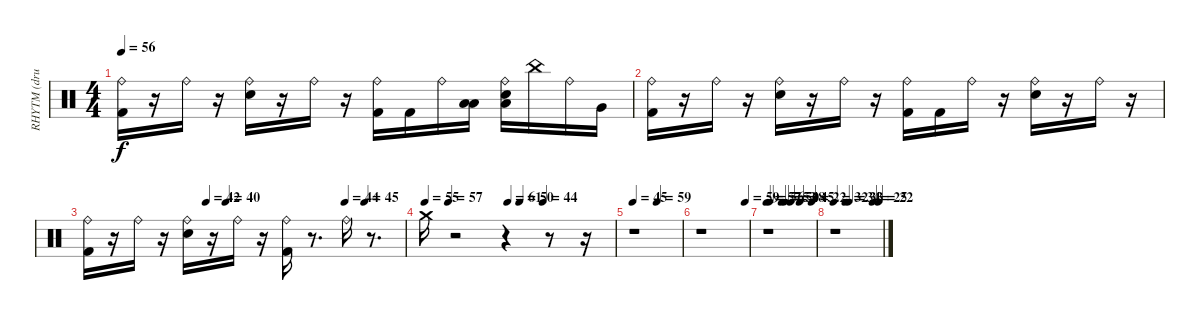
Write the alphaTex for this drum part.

\track ("RHYTM (drums)" "RHYTM (dru") {instrument percussion}
\staff {score}
\articulation defaults
\ts (4 4)
\tempo 56
\clef neutral
\ks c
("Ride (bell)" "Kick (hit) 2").16{dy f} r.16 "Ride (bell)".16 r.16 ("Ride (bell)" "Electric Snare (hit)").16 r.16 "Ride (bell)".16 r.16 ("Ride (bell)" "Kick (hit) 2").16 "Kick (hit) 2".16 "Ride (bell)".16 ("Low Floor Tom (hit)" "Low Tom (hit)").16 ("Low Floor Tom (hit)" "Ride (bell)" "Electric Snare (hit)").16 "China (hit)".16 "Ride (bell)".16 "Very Low Tom (hit)".16 |
("Ride (bell)" "Kick (hit) 2").16 r.16 "Ride (bell)".16 r.16 ("Ride (bell)" "Electric Snare (hit)").16 r.16 "Ride (bell)".16 r.16 ("Ride (bell)" "Kick (hit) 2").16 "Kick (hit) 2".16 "Ride (bell)".16 r.16 ("Ride (bell)" "Electric Snare (hit)").16 r.16 "Ride (bell)".16 r.16 |
\tempo (42 0.375)
\tempo (40 0.4375)
\tempo (44 0.8125)
\tempo (45 0.875)
("Ride (bell)" "Kick (hit) 2").16 r.16 "Ride (bell)".16 r.16 ("Ride (bell)" "Electric Snare (hit)").16 r.16 "Ride (bell)".16 r.16 ("Ride (bell)" "Kick (hit) 2").16 r.8{d} "Ride (bell)".16 r.8{d} |
\tempo 55
\tempo (57 0.125)
\tempo (61 0.4375)
\tempo (50 0.5)
\tempo (44 0.625)
"Crash medium (hit)".16 r.2 r.4 r.8 r.16 |
\tempo 45
\tempo (59 0.5)
r.1 |
\tempo (59 0.9375)
r.1 |
\tempo 57
\tempo (56 0.0625)
\tempo (53 0.3125)
\tempo (50 0.375)
\tempo (48 0.5)
\tempo (45 0.6875)
\tempo (22 0.9375)
r.1 |
\tempo 32
\tempo (34 0.25)
\tempo (33 0.3125)
\tempo (25 0.8125)
\tempo (22 0.9375)
r.1
